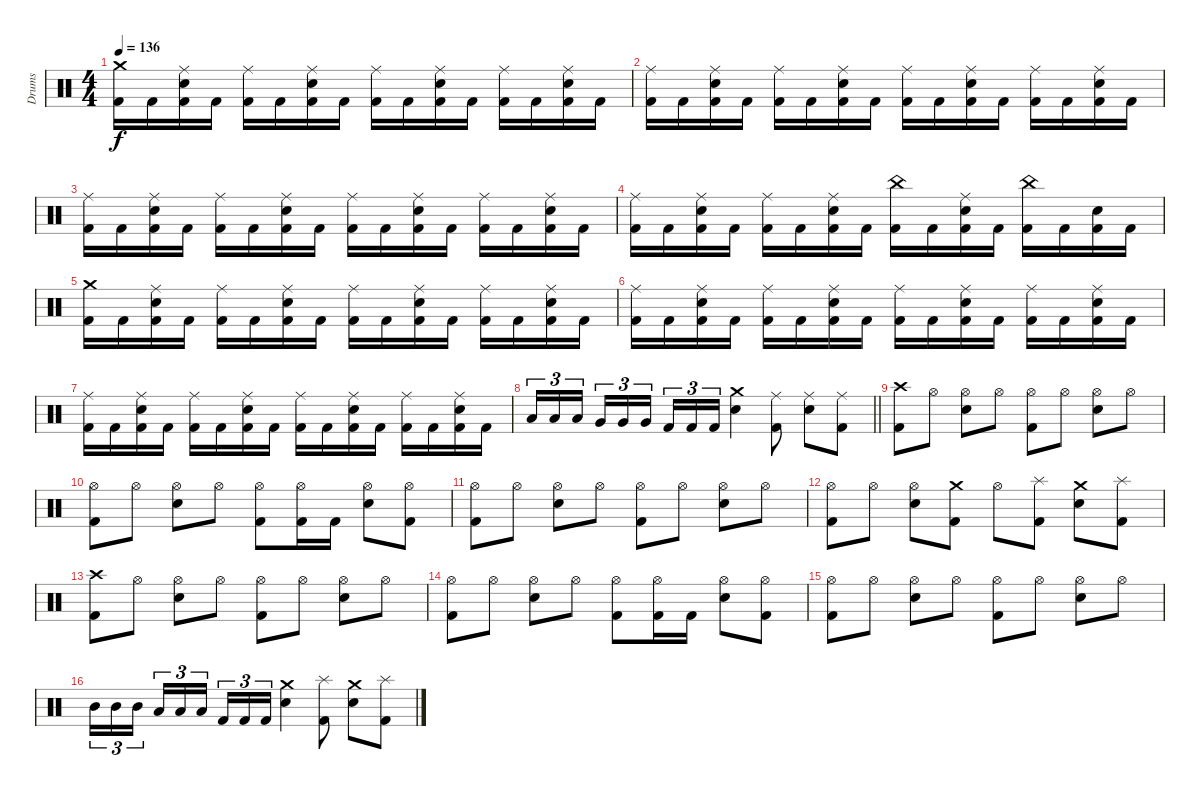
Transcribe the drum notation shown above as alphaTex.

\track ("Drums" "Drums") {instrument percussion}
\staff {score}
\articulation defaults
\ts (4 4)
\tempo 136
\clef neutral
\ks c
("Crash medium (hit)" "Kick (hit) 2").16{dy f} "Kick (hit) 2".16 ("Ride (middle)" "Electric Snare (hit)" "Kick (hit) 2").16 "Kick (hit) 2".16 ("Ride (middle)" "Kick (hit) 2").16 "Kick (hit) 2".16 ("Ride (middle)" "Electric Snare (hit)" "Kick (hit) 2").16 "Kick (hit) 2".16 ("Ride (middle)" "Kick (hit) 2").16 "Kick (hit) 2".16 ("Ride (middle)" "Electric Snare (hit)" "Kick (hit) 2").16 "Kick (hit) 2".16 ("Ride (middle)" "Kick (hit) 2").16 "Kick (hit) 2".16 ("Ride (middle)" "Electric Snare (hit)" "Kick (hit) 2").16 "Kick (hit) 2".16 |
("Ride (middle)" "Kick (hit) 2").16 "Kick (hit) 2".16 ("Ride (middle)" "Electric Snare (hit)" "Kick (hit) 2").16 "Kick (hit) 2".16 ("Ride (middle)" "Kick (hit) 2").16 "Kick (hit) 2".16 ("Ride (middle)" "Electric Snare (hit)" "Kick (hit) 2").16 "Kick (hit) 2".16 ("Ride (middle)" "Kick (hit) 2").16 "Kick (hit) 2".16 ("Ride (middle)" "Electric Snare (hit)" "Kick (hit) 2").16 "Kick (hit) 2".16 ("Ride (middle)" "Kick (hit) 2").16 "Kick (hit) 2".16 ("Ride (middle)" "Electric Snare (hit)" "Kick (hit) 2").16 "Kick (hit) 2".16 |
("Ride (middle)" "Kick (hit) 2").16 "Kick (hit) 2".16 ("Ride (middle)" "Electric Snare (hit)" "Kick (hit) 2").16 "Kick (hit) 2".16 ("Ride (middle)" "Kick (hit) 2").16 "Kick (hit) 2".16 ("Ride (middle)" "Electric Snare (hit)" "Kick (hit) 2").16 "Kick (hit) 2".16 ("Ride (middle)" "Kick (hit) 2").16 "Kick (hit) 2".16 ("Ride (middle)" "Electric Snare (hit)" "Kick (hit) 2").16 "Kick (hit) 2".16 ("Ride (middle)" "Kick (hit) 2").16 "Kick (hit) 2".16 ("Ride (middle)" "Electric Snare (hit)" "Kick (hit) 2").16 "Kick (hit) 2".16 |
("Ride (middle)" "Kick (hit) 2").16 "Kick (hit) 2".16 ("Ride (middle)" "Electric Snare (hit)" "Kick (hit) 2").16 "Kick (hit) 2".16 ("Ride (middle)" "Kick (hit) 2").16 "Kick (hit) 2".16 ("Ride (middle)" "Electric Snare (hit)" "Kick (hit) 2").16 "Kick (hit) 2".16 ("China (hit)" "Kick (hit) 2").16 "Kick (hit) 2".16 ("Ride (middle)" "Electric Snare (hit)" "Kick (hit) 2").16 "Kick (hit) 2".16 ("China (hit)" "Kick (hit) 2").16 "Kick (hit) 2".16 ("Electric Snare (hit)" "Kick (hit) 2").16 "Kick (hit) 2".16 |
("Crash medium (hit)" "Kick (hit) 2").16 "Kick (hit) 2".16 ("Ride (middle)" "Electric Snare (hit)" "Kick (hit) 2").16 "Kick (hit) 2".16 ("Ride (middle)" "Kick (hit) 2").16 "Kick (hit) 2".16 ("Ride (middle)" "Electric Snare (hit)" "Kick (hit) 2").16 "Kick (hit) 2".16 ("Ride (middle)" "Kick (hit) 2").16 "Kick (hit) 2".16 ("Ride (middle)" "Electric Snare (hit)" "Kick (hit) 2").16 "Kick (hit) 2".16 ("Ride (middle)" "Kick (hit) 2").16 "Kick (hit) 2".16 ("Ride (middle)" "Electric Snare (hit)" "Kick (hit) 2").16 "Kick (hit) 2".16 |
("Ride (middle)" "Kick (hit) 2").16 "Kick (hit) 2".16 ("Ride (middle)" "Electric Snare (hit)" "Kick (hit) 2").16 "Kick (hit) 2".16 ("Ride (middle)" "Kick (hit) 2").16 "Kick (hit) 2".16 ("Ride (middle)" "Electric Snare (hit)" "Kick (hit) 2").16 "Kick (hit) 2".16 ("Ride (middle)" "Kick (hit) 2").16 "Kick (hit) 2".16 ("Ride (middle)" "Electric Snare (hit)" "Kick (hit) 2").16 "Kick (hit) 2".16 ("Ride (middle)" "Kick (hit) 2").16 "Kick (hit) 2".16 ("Ride (middle)" "Electric Snare (hit)" "Kick (hit) 2").16 "Kick (hit) 2".16 |
("Ride (middle)" "Kick (hit) 2").16 "Kick (hit) 2".16 ("Ride (middle)" "Electric Snare (hit)" "Kick (hit) 2").16 "Kick (hit) 2".16 ("Ride (middle)" "Kick (hit) 2").16 "Kick (hit) 2".16 ("Ride (middle)" "Electric Snare (hit)" "Kick (hit) 2").16 "Kick (hit) 2".16 ("Ride (middle)" "Kick (hit) 2").16 "Kick (hit) 2".16 ("Ride (middle)" "Electric Snare (hit)" "Kick (hit) 2").16 "Kick (hit) 2".16 ("Ride (middle)" "Kick (hit) 2").16 "Kick (hit) 2".16 ("Ride (middle)" "Electric Snare (hit)" "Kick (hit) 2").16 "Kick (hit) 2".16 |
\barLineRight lightlight "Low Tom (hit)".16{tu (3 2)} "Low Tom (hit)".16{tu (3 2)} "Low Tom (hit)".16{tu (3 2)} "Very Low Tom (hit)".16{tu (3 2)} "Very Low Tom (hit)".16{tu (3 2)} "Very Low Tom (hit)".16{tu (3 2)} "Kick (hit) 2".16{tu (3 2)} "Kick (hit) 2".16{tu (3 2)} "Kick (hit) 2".16{tu (3 2)}
("Crash medium (hit)" "Electric Snare (hit)").4 ("Ride (middle)" "Kick (hit) 2").8 ("Ride (middle)" "Electric Snare (hit)").8 ("Ride (middle)" "Kick (hit) 2").8 |
\section ("" "")
("Crash high (hit)" "Kick (hit) 2").8 "Hi-Hat (open)".8 ("Hi-Hat (open)" "Electric Snare (hit)").8 "Hi-Hat (open)".8 ("Hi-Hat (open)" "Kick (hit) 2").8 "Hi-Hat (open)".8 ("Hi-Hat (open)" "Electric Snare (hit)").8 "Hi-Hat (open)".8 |
("Hi-Hat (open)" "Kick (hit) 2").8 "Hi-Hat (open)".8 ("Hi-Hat (open)" "Electric Snare (hit)").8 "Hi-Hat (open)".8 ("Hi-Hat (open)" "Kick (hit) 2").8 ("Hi-Hat (open)" "Kick (hit) 2").16 "Kick (hit) 2".16 ("Hi-Hat (open)" "Electric Snare (hit)").8 ("Hi-Hat (open)" "Kick (hit) 2").8 |
("Hi-Hat (open)" "Kick (hit) 2").8 "Hi-Hat (open)".8 ("Hi-Hat (open)" "Electric Snare (hit)").8 "Hi-Hat (open)".8 ("Hi-Hat (open)" "Kick (hit) 2").8 "Hi-Hat (open)".8 ("Hi-Hat (open)" "Electric Snare (hit)").8 "Hi-Hat (open)".8 |
("Hi-Hat (open)" "Kick (hit) 2").8 "Hi-Hat (open)".8 ("Hi-Hat (open)" "Electric Snare (hit)").8 ("Crash medium (hit)" "Kick (hit) 2").8 "Hi-Hat (open)".8 ("Splash (hit)" "Kick (hit) 2").8 ("Crash medium (hit)" "Electric Snare (hit)").8 ("Splash (hit)" "Kick (hit) 2").8 |
("Crash high (hit)" "Kick (hit) 2").8 "Hi-Hat (open)".8 ("Hi-Hat (open)" "Electric Snare (hit)").8 "Hi-Hat (open)".8 ("Hi-Hat (open)" "Kick (hit) 2").8 "Hi-Hat (open)".8 ("Hi-Hat (open)" "Electric Snare (hit)").8 "Hi-Hat (open)".8 |
("Hi-Hat (open)" "Kick (hit) 2").8 "Hi-Hat (open)".8 ("Hi-Hat (open)" "Electric Snare (hit)").8 "Hi-Hat (open)".8 ("Hi-Hat (open)" "Kick (hit) 2").8 ("Hi-Hat (open)" "Kick (hit) 2").16 "Kick (hit) 2".16 ("Hi-Hat (open)" "Electric Snare (hit)").8 ("Hi-Hat (open)" "Kick (hit) 2").8 |
("Hi-Hat (open)" "Kick (hit) 2").8 "Hi-Hat (open)".8 ("Hi-Hat (open)" "Electric Snare (hit)").8 "Hi-Hat (open)".8 ("Hi-Hat (open)" "Kick (hit) 2").8 "Hi-Hat (open)".8 ("Hi-Hat (open)" "Electric Snare (hit)").8 "Hi-Hat (open)".8 |
"Mid Tom (hit)".16{tu (3 2)} "Mid Tom (hit)".16{tu (3 2)} "Mid Tom (hit)".16{tu (3 2)} "Low Tom (hit)".16{tu (3 2)} "Low Tom (hit)".16{tu (3 2)} "Low Tom (hit)".16{tu (3 2)} "Kick (hit) 2".16{tu (3 2)} "Kick (hit) 2".16{tu (3 2)} "Kick (hit) 2".16{tu (3 2)} ("Crash medium (hit)" "Electric Snare (hit)").4 ("Splash (hit)" "Kick (hit) 2").8 ("Crash medium (hit)" "Electric Snare (hit)").8 ("Splash (hit)" "Kick (hit) 2").8
